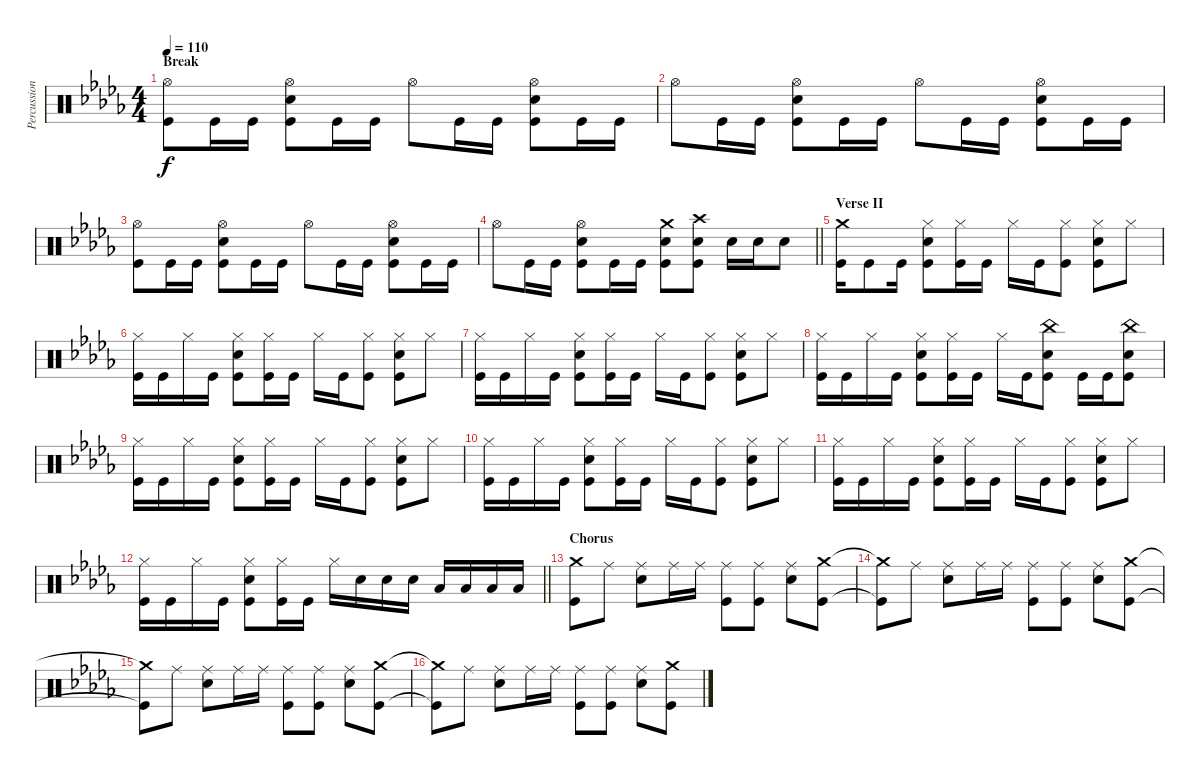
\track ("Percussion" "Percussion") {instrument percussion}
\staff {score}
\articulation defaults
\ts (4 4)
\section ("" "Break")
\tempo 110
\clef neutral
\ks db
("Hi-Hat (open)" "Kick (hit)").8{dy f} "Kick (hit)".16 "Kick (hit)".16 ("Hi-Hat (open)" "Electric Snare (hit)" "Kick (hit)").8 "Kick (hit)".16 "Kick (hit)".16 "Hi-Hat (open)".8 "Kick (hit)".16 "Kick (hit)".16 ("Hi-Hat (open)" "Electric Snare (hit)" "Kick (hit)").8 "Kick (hit)".16 "Kick (hit)".16 |
"Hi-Hat (open)".8 "Kick (hit)".16 "Kick (hit)".16 ("Hi-Hat (open)" "Electric Snare (hit)" "Kick (hit)").8 "Kick (hit)".16 "Kick (hit)".16 "Hi-Hat (open)".8 "Kick (hit)".16 "Kick (hit)".16 ("Hi-Hat (open)" "Electric Snare (hit)" "Kick (hit)").8 "Kick (hit)".16 "Kick (hit)".16 |
("Hi-Hat (open)" "Kick (hit)").8 "Kick (hit)".16 "Kick (hit)".16 ("Hi-Hat (open)" "Electric Snare (hit)" "Kick (hit)").8 "Kick (hit)".16 "Kick (hit)".16 "Hi-Hat (open)".8 "Kick (hit)".16 "Kick (hit)".16 ("Hi-Hat (open)" "Electric Snare (hit)" "Kick (hit)").8 "Kick (hit)".16 "Kick (hit)".16 |
\barLineRight lightlight "Hi-Hat (open)".8 "Kick (hit)".16 "Kick (hit)".16
("Hi-Hat (open)" "Electric Snare (hit)" "Kick (hit)").8 "Kick (hit)".16 "Kick (hit)".16 ("Crash medium (hit)" "Electric Snare (hit)" "Kick (hit)").8 ("Crash high (hit)" "Electric Snare (hit)" "Kick (hit)").8 "Electric Snare (hit)".16 "Electric Snare (hit)".16 "Electric Snare (hit)".8 |
\section ("" "Verse II")
("Crash medium (hit)" "Kick (hit)").16 "Kick (hit)".8 "Kick (hit)".16 ("Hi-Hat (closed)" "Electric Snare (hit)" "Kick (hit)").8 ("Hi-Hat (closed)" "Kick (hit)").16 "Kick (hit)".16 "Hi-Hat (closed)".16 "Kick (hit)".16 ("Hi-Hat (closed)" "Kick (hit)").8 ("Hi-Hat (closed)" "Electric Snare (hit)" "Kick (hit)").8 "Hi-Hat (closed)".8 |
("Hi-Hat (closed)" "Kick (hit)").16 "Kick (hit)".16 "Hi-Hat (closed)".16 "Kick (hit)".16 ("Hi-Hat (closed)" "Electric Snare (hit)" "Kick (hit)").8 ("Hi-Hat (closed)" "Kick (hit)").16 "Kick (hit)".16 "Hi-Hat (closed)".16 "Kick (hit)".16 ("Hi-Hat (closed)" "Kick (hit)").8 ("Hi-Hat (closed)" "Electric Snare (hit)" "Kick (hit)").8 "Hi-Hat (closed)".8 |
("Hi-Hat (closed)" "Kick (hit)").16 "Kick (hit)".16 "Hi-Hat (closed)".16 "Kick (hit)".16 ("Hi-Hat (closed)" "Electric Snare (hit)" "Kick (hit)").8 ("Hi-Hat (closed)" "Kick (hit)").16 "Kick (hit)".16 "Hi-Hat (closed)".16 "Kick (hit)".16 ("Hi-Hat (closed)" "Kick (hit)").8 ("Hi-Hat (closed)" "Electric Snare (hit)" "Kick (hit)").8 "Hi-Hat (closed)".8 |
("Hi-Hat (closed)" "Kick (hit)").16 "Kick (hit)".16 "Hi-Hat (closed)".16 "Kick (hit)".16 ("Hi-Hat (closed)" "Electric Snare (hit)" "Kick (hit)").8 ("Hi-Hat (closed)" "Kick (hit)").16 "Kick (hit)".16 "Hi-Hat (closed)".16 "Kick (hit)".16 ("China (hit)" "Electric Snare (hit)" "Kick (hit)").8 "Kick (hit)".16 "Kick (hit)".16 ("China (hit)" "Electric Snare (hit)" "Kick (hit)").8 |
("Hi-Hat (closed)" "Kick (hit)").16 "Kick (hit)".16 "Hi-Hat (closed)".16 "Kick (hit)".16 ("Hi-Hat (closed)" "Electric Snare (hit)" "Kick (hit)").8 ("Hi-Hat (closed)" "Kick (hit)").16 "Kick (hit)".16 "Hi-Hat (closed)".16 "Kick (hit)".16 ("Hi-Hat (closed)" "Kick (hit)").8 ("Hi-Hat (closed)" "Electric Snare (hit)" "Kick (hit)").8 "Hi-Hat (closed)".8 |
("Hi-Hat (closed)" "Kick (hit)").16 "Kick (hit)".16 "Hi-Hat (closed)".16 "Kick (hit)".16 ("Hi-Hat (closed)" "Electric Snare (hit)" "Kick (hit)").8 ("Hi-Hat (closed)" "Kick (hit)").16 "Kick (hit)".16 "Hi-Hat (closed)".16 "Kick (hit)".16 ("Hi-Hat (closed)" "Kick (hit)").8 ("Hi-Hat (closed)" "Electric Snare (hit)" "Kick (hit)").8 "Hi-Hat (closed)".8 |
("Hi-Hat (closed)" "Kick (hit)").16 "Kick (hit)".16 "Hi-Hat (closed)".16 "Kick (hit)".16 ("Hi-Hat (closed)" "Electric Snare (hit)" "Kick (hit)").8 ("Hi-Hat (closed)" "Kick (hit)").16 "Kick (hit)".16 "Hi-Hat (closed)".16 "Kick (hit)".16 ("Hi-Hat (closed)" "Kick (hit)").8 ("Hi-Hat (closed)" "Electric Snare (hit)" "Kick (hit)").8 "Hi-Hat (closed)".8 |
\barLineRight lightlight
("Hi-Hat (closed)" "Kick (hit)").16 "Kick (hit)".16 "Hi-Hat (closed)".16 "Kick (hit)".16 ("Hi-Hat (closed)" "Electric Snare (hit)" "Kick (hit)").8 ("Hi-Hat (closed)" "Kick (hit)").16 "Kick (hit)".16 "Hi-Hat (closed)".16 "Electric Snare (hit)".16 "Electric Snare (hit)".16 "Electric Snare (hit)".16 "Low Tom (hit)".16 "Low Tom (hit)".16 "Low Floor Tom (hit)".16 "Low Floor Tom (hit)".16 |
\section ("" "Chorus")
("Crash medium (hit)" "Kick (hit)").8 "Ride (middle)".8 ("Ride (middle)" "Electric Snare (hit)").8 "Ride (middle)".16 "Ride (middle)".16 ("Ride (middle)" "Kick (hit)").8 ("Ride (middle)" "Kick (hit)").8 ("Ride (middle)" "Electric Snare (hit)").8 ("Crash medium (hit)" "Kick (hit)").8 |
("Crash medium (hit)"{t} "Kick (hit)"{t}).8 "Ride (middle)".8 ("Ride (middle)" "Electric Snare (hit)").8 "Ride (middle)".16 "Ride (middle)".16 ("Ride (middle)" "Kick (hit)").8 ("Ride (middle)" "Kick (hit)").8 ("Ride (middle)" "Electric Snare (hit)").8 ("Crash medium (hit)" "Kick (hit)").8 |
("Crash medium (hit)"{t} "Kick (hit)"{t}).8 "Ride (middle)".8 ("Ride (middle)" "Electric Snare (hit)").8 "Ride (middle)".16 "Ride (middle)".16 ("Ride (middle)" "Kick (hit)").8 ("Ride (middle)" "Kick (hit)").8 ("Ride (middle)" "Electric Snare (hit)").8 ("Crash medium (hit)" "Kick (hit)").8 |
("Crash medium (hit)"{t} "Kick (hit)"{t}).8 "Ride (middle)".8 ("Ride (middle)" "Electric Snare (hit)").8 "Ride (middle)".16 "Ride (middle)".16 ("Ride (middle)" "Kick (hit)").8 ("Ride (middle)" "Kick (hit)").8 ("Ride (middle)" "Electric Snare (hit)").8 ("Crash medium (hit)" "Kick (hit)").8
